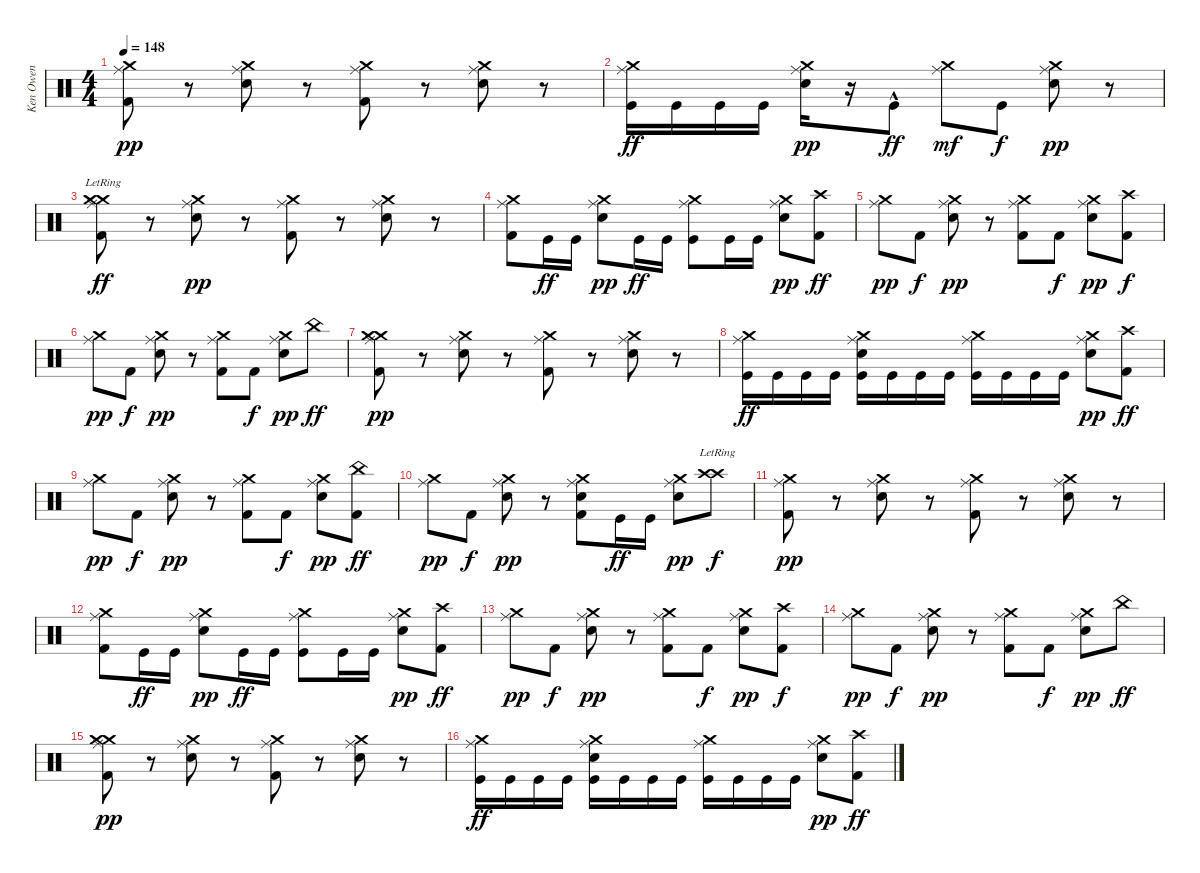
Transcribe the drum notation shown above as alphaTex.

\track ("Ken Owen" "Ken Owen") {instrument percussion}
\staff {score}
\articulation defaults
\ts (4 4)
\tempo 148
\clef neutral
\ks c
("Crash medium (hit)" "Ride (middle)" "Kick (hit) 2").8{dy pp} r.8 ("Crash medium (hit)" "Ride (middle)" "Electric Snare (hit)").8 r.8 ("Crash medium (hit)" "Ride (middle)" "Kick (hit) 2").8 r.8 ("Crash medium (hit)" "Ride (middle)" "Electric Snare (hit)").8 r.8 |
("Crash medium (hit)" "Ride (middle)" "Kick (hit)").16{dy ff} "Kick (hit)".16 "Kick (hit)".16 "Kick (hit)".16 ("Crash medium (hit)" "Ride (middle)" "Electric Snare (hit)").16{dy pp} r.16 "Kick (hit)"{hac}.8{dy ff} ("Crash medium (hit)" "Ride (middle)").8{dy mf} "Kick (hit)".8{dy f} ("Crash medium (hit)" "Ride (middle)" "Electric Snare (hit)").8{dy pp} r.8 |
("Crash medium (hit)" "Ride (middle)" "Kick (hit) 2" "Crash medium (hit)"{lr}).8{dy ff} r.8 ("Crash medium (hit)" "Ride (middle)" "Electric Snare (hit)").8{dy pp} r.8 ("Crash medium (hit)" "Ride (middle)" "Kick (hit) 2").8 r.8 ("Crash medium (hit)" "Ride (middle)" "Electric Snare (hit)").8 r.8 |
("Crash medium (hit)" "Ride (middle)" "Kick (hit) 2").8 "Kick (hit)".16{dy ff} "Kick (hit)".16 ("Crash medium (hit)" "Ride (middle)" "Electric Snare (hit)").8{dy pp} "Kick (hit)".16{dy ff} "Kick (hit)".16 ("Crash medium (hit)" "Ride (middle)" "Kick (hit)").8 "Kick (hit)".16 "Kick (hit)".16 ("Crash medium (hit)" "Ride (middle)" "Electric Snare (hit)").8{dy pp} ("Kick (hit) 2" "Crash high (hit)").8{dy ff} |
("Crash medium (hit)" "Ride (middle)").8{dy pp} "Kick (hit) 2".8{dy f} ("Crash medium (hit)" "Ride (middle)" "Electric Snare (hit)").8{dy pp} r.8 ("Crash medium (hit)" "Ride (middle)" "Kick (hit) 2").8 "Kick (hit) 2".8{dy f} ("Crash medium (hit)" "Ride (middle)" "Electric Snare (hit)").8{dy pp} ("Kick (hit) 2" "Crash high (hit)").8{dy f} |
("Crash medium (hit)" "Ride (middle)").8{dy pp} "Kick (hit) 2".8{dy f} ("Crash medium (hit)" "Ride (middle)" "Electric Snare (hit)").8{dy pp} r.8 ("Crash medium (hit)" "Ride (middle)" "Kick (hit) 2").8 "Kick (hit) 2".8{dy f} ("Crash medium (hit)" "Ride (middle)" "Electric Snare (hit)").8{dy pp} "China (hit)".8{dy ff} |
("Crash medium (hit)" "Ride (middle)" "Kick (hit) 2" "Crash medium (hit)").8{dy pp} r.8 ("Crash medium (hit)" "Ride (middle)" "Electric Snare (hit)").8 r.8 ("Crash medium (hit)" "Ride (middle)" "Kick (hit) 2").8 r.8 ("Crash medium (hit)" "Ride (middle)" "Electric Snare (hit)").8 r.8 |
("Crash medium (hit)" "Ride (middle)" "Kick (hit)").16{dy ff} "Kick (hit)".16 "Kick (hit)".16 "Kick (hit)".16 ("Crash medium (hit)" "Ride (middle)" "Kick (hit)" "Electric Snare (hit)").16 "Kick (hit)".16 "Kick (hit)".16 "Kick (hit)".16 ("Crash medium (hit)" "Ride (middle)" "Kick (hit)").16 "Kick (hit)".16 "Kick (hit)".16 "Kick (hit)".16 ("Crash medium (hit)" "Ride (middle)" "Electric Snare (hit)").8{dy pp} ("Kick (hit) 2" "Crash high (hit)").8{dy ff} |
("Crash medium (hit)" "Ride (middle)").8{dy pp} "Kick (hit) 2".8{dy f} ("Crash medium (hit)" "Ride (middle)" "Electric Snare (hit)").8{dy pp} r.8 ("Crash medium (hit)" "Ride (middle)" "Kick (hit) 2").8 "Kick (hit) 2".8{dy f} ("Crash medium (hit)" "Ride (middle)" "Electric Snare (hit)").8{dy pp} ("Kick (hit) 2" "China (hit)").8{dy ff} |
("Crash medium (hit)" "Ride (middle)").8{dy pp} "Kick (hit) 2".8{dy f} ("Crash medium (hit)" "Ride (middle)" "Electric Snare (hit)").8{dy pp} r.8 ("Crash medium (hit)" "Ride (middle)" "Kick (hit) 2" "Electric Snare (hit)").8 "Kick (hit)".16{dy ff} "Kick (hit)".16 ("Crash medium (hit)" "Ride (middle)" "Electric Snare (hit)").8{dy pp} ("Crash high (hit)"{lr} "Crash high (hit)"{lr}).8{dy f} |
("Crash medium (hit)" "Ride (middle)" "Kick (hit) 2").8{dy pp} r.8 ("Crash medium (hit)" "Ride (middle)" "Electric Snare (hit)").8 r.8 ("Crash medium (hit)" "Ride (middle)" "Kick (hit) 2").8 r.8 ("Crash medium (hit)" "Ride (middle)" "Electric Snare (hit)").8 r.8 |
("Crash medium (hit)" "Ride (middle)" "Kick (hit) 2").8 "Kick (hit)".16{dy ff} "Kick (hit)".16 ("Crash medium (hit)" "Ride (middle)" "Electric Snare (hit)").8{dy pp} "Kick (hit)".16{dy ff} "Kick (hit)".16 ("Crash medium (hit)" "Ride (middle)" "Kick (hit)").8 "Kick (hit)".16 "Kick (hit)".16 ("Crash medium (hit)" "Ride (middle)" "Electric Snare (hit)").8{dy pp} ("Kick (hit) 2" "Crash high (hit)").8{dy ff} |
("Crash medium (hit)" "Ride (middle)").8{dy pp} "Kick (hit) 2".8{dy f} ("Crash medium (hit)" "Ride (middle)" "Electric Snare (hit)").8{dy pp} r.8 ("Crash medium (hit)" "Ride (middle)" "Kick (hit) 2").8 "Kick (hit) 2".8{dy f} ("Crash medium (hit)" "Ride (middle)" "Electric Snare (hit)").8{dy pp} ("Kick (hit) 2" "Crash high (hit)").8{dy f} |
("Crash medium (hit)" "Ride (middle)").8{dy pp} "Kick (hit) 2".8{dy f} ("Crash medium (hit)" "Ride (middle)" "Electric Snare (hit)").8{dy pp} r.8 ("Crash medium (hit)" "Ride (middle)" "Kick (hit) 2").8 "Kick (hit) 2".8{dy f} ("Crash medium (hit)" "Ride (middle)" "Electric Snare (hit)").8{dy pp} "China (hit)".8{dy ff} |
("Crash medium (hit)" "Ride (middle)" "Kick (hit) 2" "Crash medium (hit)").8{dy pp} r.8 ("Crash medium (hit)" "Ride (middle)" "Electric Snare (hit)").8 r.8 ("Crash medium (hit)" "Ride (middle)" "Kick (hit) 2").8 r.8 ("Crash medium (hit)" "Ride (middle)" "Electric Snare (hit)").8 r.8 |
("Crash medium (hit)" "Ride (middle)" "Kick (hit)").16{dy ff} "Kick (hit)".16 "Kick (hit)".16 "Kick (hit)".16 ("Crash medium (hit)" "Ride (middle)" "Kick (hit)" "Electric Snare (hit)").16 "Kick (hit)".16 "Kick (hit)".16 "Kick (hit)".16 ("Crash medium (hit)" "Ride (middle)" "Kick (hit)").16 "Kick (hit)".16 "Kick (hit)".16 "Kick (hit)".16 ("Crash medium (hit)" "Ride (middle)" "Electric Snare (hit)").8{dy pp} ("Kick (hit) 2" "Crash high (hit)").8{dy ff}
